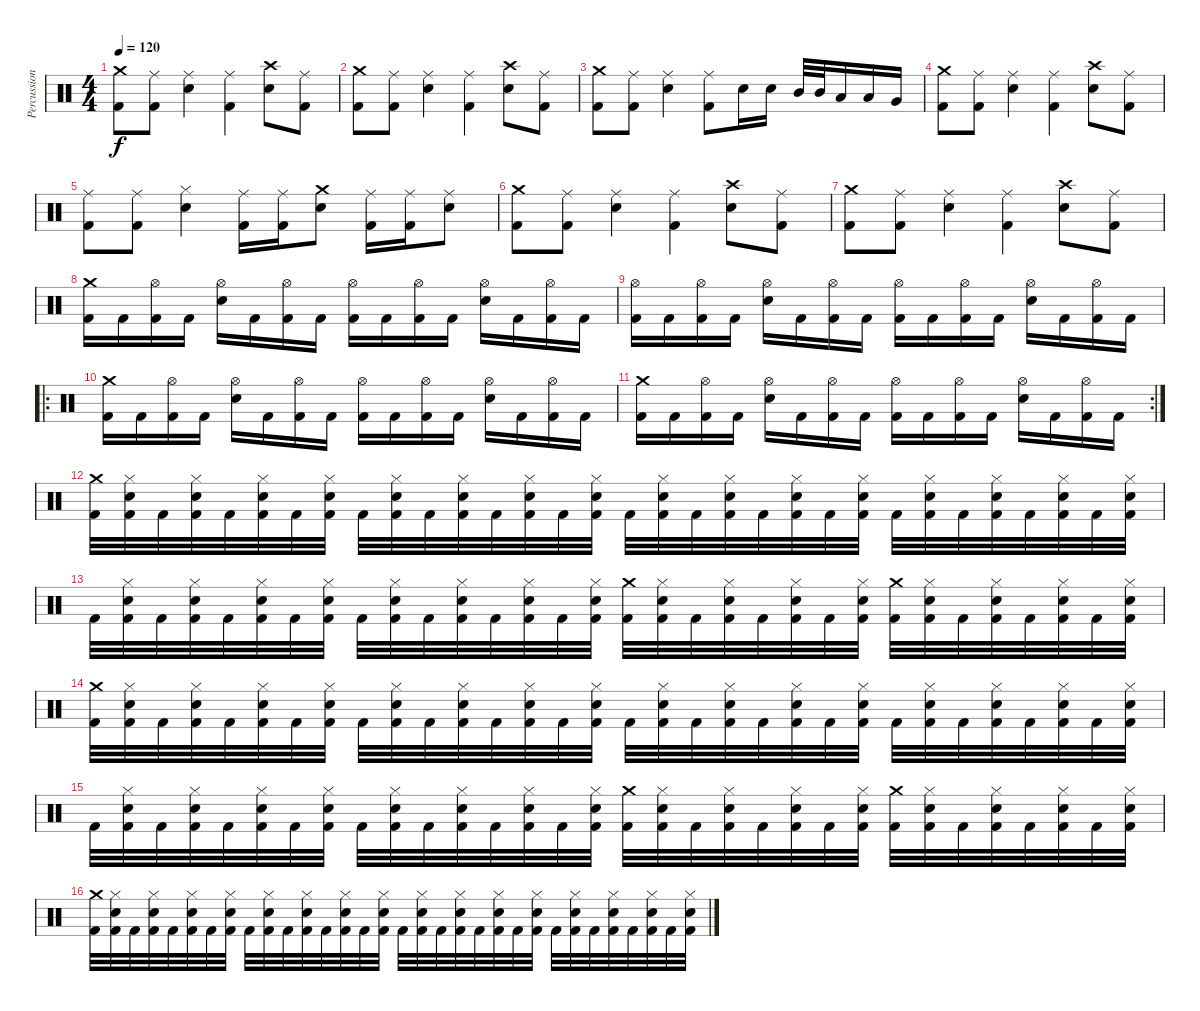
\track ("Percussion" "Percussion") {instrument percussion}
\staff {score}
\articulation defaults
\ts (4 4)
\tempo 120
\clef neutral
\ks c
("Crash medium (hit)" "Kick (hit) 2").8{dy f} ("Ride (middle)" "Kick (hit) 2").8 ("Ride (middle)" "Snare (hit) 2").4 ("Ride (middle)" "Kick (hit) 2").4 ("Crash high (hit)" "Snare (hit) 2").8 ("Ride (middle)" "Kick (hit) 2").8 |
("Crash medium (hit)" "Kick (hit) 2").8 ("Ride (middle)" "Kick (hit) 2").8 ("Ride (middle)" "Snare (hit) 2").4 ("Ride (middle)" "Kick (hit) 2").4 ("Crash high (hit)" "Snare (hit) 2").8 ("Ride (middle)" "Kick (hit) 2").8 |
("Crash medium (hit)" "Kick (hit) 2").8 ("Ride (middle)" "Kick (hit) 2").8 ("Ride (middle)" "Snare (hit) 2").4 ("Ride (middle)" "Kick (hit) 2").8 "Snare (hit) 2".16 "Snare (hit) 2".16 "Mid Tom (hit)".32 "Mid Tom (hit)".32 "Low Tom (hit)".16 "Low Tom (hit)".16 "Very Low Tom (hit)".16 |
("Crash medium (hit)" "Kick (hit) 2").8 ("Ride (middle)" "Kick (hit) 2").8 ("Ride (middle)" "Snare (hit) 2").4 ("Ride (middle)" "Kick (hit) 2").4 ("Crash high (hit)" "Snare (hit) 2").8 ("Ride (middle)" "Kick (hit) 2").8 |
("Ride (middle)" "Kick (hit) 2").8 ("Ride (middle)" "Kick (hit) 2").8 ("Hi-Hat (closed)" "Snare (hit) 2").4 ("Ride (middle)" "Kick (hit) 2").16 ("Ride (middle)" "Kick (hit) 2").16 ("Crash medium (hit)" "Snare (hit) 2").8 ("Ride (middle)" "Kick (hit) 2").16 ("Ride (middle)" "Kick (hit) 2").16 ("Ride (middle)" "Snare (hit) 2").8 |
("Crash medium (hit)" "Kick (hit) 2").8 ("Ride (middle)" "Kick (hit) 2").8 ("Ride (middle)" "Snare (hit) 2").4 ("Ride (middle)" "Kick (hit) 2").4 ("Crash high (hit)" "Snare (hit) 2").8 ("Ride (middle)" "Kick (hit) 2").8 |
("Crash medium (hit)" "Kick (hit) 2").8 ("Ride (middle)" "Kick (hit) 2").8 ("Ride (middle)" "Snare (hit) 2").4 ("Ride (middle)" "Kick (hit) 2").4 ("Crash high (hit)" "Snare (hit) 2").8 ("Ride (middle)" "Kick (hit) 2").8 |
("Crash medium (hit)" "Kick (hit) 2").16 "Kick (hit) 2".16 ("Hi-Hat (open)" "Kick (hit) 2").16 "Kick (hit) 2".16 ("Hi-Hat (open)" "Snare (hit) 2").16 "Kick (hit) 2".16 ("Hi-Hat (open)" "Kick (hit) 2").16 "Kick (hit) 2".16 ("Hi-Hat (open)" "Kick (hit) 2").16 "Kick (hit) 2".16 ("Hi-Hat (open)" "Kick (hit) 2").16 "Kick (hit) 2".16 ("Hi-Hat (open)" "Snare (hit) 2").16 "Kick (hit) 2".16 ("Hi-Hat (open)" "Kick (hit) 2").16 "Kick (hit) 2".16 |
("Hi-Hat (open)" "Kick (hit) 2").16 "Kick (hit) 2".16 ("Hi-Hat (open)" "Kick (hit) 2").16 "Kick (hit) 2".16 ("Hi-Hat (open)" "Snare (hit) 2").16 "Kick (hit) 2".16 ("Hi-Hat (open)" "Kick (hit) 2").16 "Kick (hit) 2".16 ("Hi-Hat (open)" "Kick (hit) 2").16 "Kick (hit) 2".16 ("Hi-Hat (open)" "Kick (hit) 2").16 "Kick (hit) 2".16 ("Hi-Hat (open)" "Snare (hit) 2").16 "Kick (hit) 2".16 ("Hi-Hat (open)" "Kick (hit) 2").16 "Kick (hit) 2".16 |
\ro
("Crash medium (hit)" "Kick (hit) 2").16 "Kick (hit) 2".16 ("Hi-Hat (open)" "Kick (hit) 2").16 "Kick (hit) 2".16 ("Hi-Hat (open)" "Snare (hit) 2").16 "Kick (hit) 2".16 ("Hi-Hat (open)" "Kick (hit) 2").16 "Kick (hit) 2".16 ("Hi-Hat (open)" "Kick (hit) 2").16 "Kick (hit) 2".16 ("Hi-Hat (open)" "Kick (hit) 2").16 "Kick (hit) 2".16 ("Hi-Hat (open)" "Snare (hit) 2").16 "Kick (hit) 2".16 ("Hi-Hat (open)" "Kick (hit) 2").16 "Kick (hit) 2".16 |
\rc 2
("Crash medium (hit)" "Kick (hit) 2").16 "Kick (hit) 2".16 ("Hi-Hat (open)" "Kick (hit) 2").16 "Kick (hit) 2".16 ("Hi-Hat (open)" "Snare (hit) 2").16 "Kick (hit) 2".16 ("Hi-Hat (open)" "Kick (hit) 2").16 "Kick (hit) 2".16 ("Hi-Hat (open)" "Kick (hit) 2").16 "Kick (hit) 2".16 ("Hi-Hat (open)" "Kick (hit) 2").16 "Kick (hit) 2".16 ("Hi-Hat (open)" "Snare (hit) 2").16 "Kick (hit) 2".16 ("Hi-Hat (open)" "Kick (hit) 2").16 "Kick (hit) 2".16 |
("Crash medium (hit)" "Kick (hit) 2").32 ("Hi-Hat (closed)" "Snare (hit) 2" "Kick (hit) 2").32 "Kick (hit) 2".32 ("Hi-Hat (closed)" "Snare (hit) 2" "Kick (hit) 2").32 "Kick (hit) 2".32 ("Hi-Hat (closed)" "Snare (hit) 2" "Kick (hit) 2").32 "Kick (hit) 2".32 ("Hi-Hat (closed)" "Snare (hit) 2" "Kick (hit) 2").32 "Kick (hit) 2".32 ("Hi-Hat (closed)" "Snare (hit) 2" "Kick (hit) 2").32 "Kick (hit) 2".32 ("Hi-Hat (closed)" "Snare (hit) 2" "Kick (hit) 2").32 "Kick (hit) 2".32 ("Hi-Hat (closed)" "Snare (hit) 2" "Kick (hit) 2").32 "Kick (hit) 2".32 ("Hi-Hat (closed)" "Snare (hit) 2" "Kick (hit) 2").32 "Kick (hit) 2".32 ("Hi-Hat (closed)" "Snare (hit) 2" "Kick (hit) 2").32 "Kick (hit) 2".32 ("Hi-Hat (closed)" "Snare (hit) 2" "Kick (hit) 2").32 "Kick (hit) 2".32 ("Hi-Hat (closed)" "Snare (hit) 2" "Kick (hit) 2").32 "Kick (hit) 2".32 ("Hi-Hat (closed)" "Snare (hit) 2" "Kick (hit) 2").32 "Kick (hit) 2".32 ("Hi-Hat (closed)" "Snare (hit) 2" "Kick (hit) 2").32 "Kick (hit) 2".32 ("Hi-Hat (closed)" "Snare (hit) 2" "Kick (hit) 2").32 "Kick (hit) 2".32 ("Hi-Hat (closed)" "Snare (hit) 2" "Kick (hit) 2").32 "Kick (hit) 2".32 ("Hi-Hat (closed)" "Snare (hit) 2" "Kick (hit) 2").32 |
"Kick (hit) 2".32 ("Hi-Hat (closed)" "Snare (hit) 2" "Kick (hit) 2").32 "Kick (hit) 2".32 ("Hi-Hat (closed)" "Snare (hit) 2" "Kick (hit) 2").32 "Kick (hit) 2".32 ("Hi-Hat (closed)" "Snare (hit) 2" "Kick (hit) 2").32 "Kick (hit) 2".32 ("Hi-Hat (closed)" "Snare (hit) 2" "Kick (hit) 2").32 "Kick (hit) 2".32 ("Hi-Hat (closed)" "Snare (hit) 2" "Kick (hit) 2").32 "Kick (hit) 2".32 ("Hi-Hat (closed)" "Snare (hit) 2" "Kick (hit) 2").32 "Kick (hit) 2".32 ("Hi-Hat (closed)" "Snare (hit) 2" "Kick (hit) 2").32 "Kick (hit) 2".32 ("Hi-Hat (closed)" "Snare (hit) 2" "Kick (hit) 2").32 ("Crash medium (hit)" "Kick (hit) 2").32 ("Hi-Hat (closed)" "Snare (hit) 2" "Kick (hit) 2").32 "Kick (hit) 2".32 ("Hi-Hat (closed)" "Snare (hit) 2" "Kick (hit) 2").32 "Kick (hit) 2".32 ("Hi-Hat (closed)" "Snare (hit) 2" "Kick (hit) 2").32 "Kick (hit) 2".32 ("Hi-Hat (closed)" "Snare (hit) 2" "Kick (hit) 2").32 ("Crash medium (hit)" "Kick (hit) 2").32 ("Hi-Hat (closed)" "Snare (hit) 2" "Kick (hit) 2").32 "Kick (hit) 2".32 ("Hi-Hat (closed)" "Snare (hit) 2" "Kick (hit) 2").32 "Kick (hit) 2".32 ("Hi-Hat (closed)" "Snare (hit) 2" "Kick (hit) 2").32 "Kick (hit) 2".32 ("Hi-Hat (closed)" "Snare (hit) 2" "Kick (hit) 2").32 |
("Crash medium (hit)" "Kick (hit) 2").32 ("Hi-Hat (closed)" "Snare (hit) 2" "Kick (hit) 2").32 "Kick (hit) 2".32 ("Hi-Hat (closed)" "Snare (hit) 2" "Kick (hit) 2").32 "Kick (hit) 2".32 ("Hi-Hat (closed)" "Snare (hit) 2" "Kick (hit) 2").32 "Kick (hit) 2".32 ("Hi-Hat (closed)" "Snare (hit) 2" "Kick (hit) 2").32 "Kick (hit) 2".32 ("Hi-Hat (closed)" "Snare (hit) 2" "Kick (hit) 2").32 "Kick (hit) 2".32 ("Hi-Hat (closed)" "Snare (hit) 2" "Kick (hit) 2").32 "Kick (hit) 2".32 ("Hi-Hat (closed)" "Snare (hit) 2" "Kick (hit) 2").32 "Kick (hit) 2".32 ("Hi-Hat (closed)" "Snare (hit) 2" "Kick (hit) 2").32 "Kick (hit) 2".32 ("Hi-Hat (closed)" "Snare (hit) 2" "Kick (hit) 2").32 "Kick (hit) 2".32 ("Hi-Hat (closed)" "Snare (hit) 2" "Kick (hit) 2").32 "Kick (hit) 2".32 ("Hi-Hat (closed)" "Snare (hit) 2" "Kick (hit) 2").32 "Kick (hit) 2".32 ("Hi-Hat (closed)" "Snare (hit) 2" "Kick (hit) 2").32 "Kick (hit) 2".32 ("Hi-Hat (closed)" "Snare (hit) 2" "Kick (hit) 2").32 "Kick (hit) 2".32 ("Hi-Hat (closed)" "Snare (hit) 2" "Kick (hit) 2").32 "Kick (hit) 2".32 ("Hi-Hat (closed)" "Snare (hit) 2" "Kick (hit) 2").32 "Kick (hit) 2".32 ("Hi-Hat (closed)" "Snare (hit) 2" "Kick (hit) 2").32 |
"Kick (hit) 2".32 ("Hi-Hat (closed)" "Snare (hit) 2" "Kick (hit) 2").32 "Kick (hit) 2".32 ("Hi-Hat (closed)" "Snare (hit) 2" "Kick (hit) 2").32 "Kick (hit) 2".32 ("Hi-Hat (closed)" "Snare (hit) 2" "Kick (hit) 2").32 "Kick (hit) 2".32 ("Hi-Hat (closed)" "Snare (hit) 2" "Kick (hit) 2").32 "Kick (hit) 2".32 ("Hi-Hat (closed)" "Snare (hit) 2" "Kick (hit) 2").32 "Kick (hit) 2".32 ("Hi-Hat (closed)" "Snare (hit) 2" "Kick (hit) 2").32 "Kick (hit) 2".32 ("Hi-Hat (closed)" "Snare (hit) 2" "Kick (hit) 2").32 "Kick (hit) 2".32 ("Hi-Hat (closed)" "Snare (hit) 2" "Kick (hit) 2").32 ("Crash medium (hit)" "Kick (hit) 2").32 ("Hi-Hat (closed)" "Snare (hit) 2" "Kick (hit) 2").32 "Kick (hit) 2".32 ("Hi-Hat (closed)" "Snare (hit) 2" "Kick (hit) 2").32 "Kick (hit) 2".32 ("Hi-Hat (closed)" "Snare (hit) 2" "Kick (hit) 2").32 "Kick (hit) 2".32 ("Hi-Hat (closed)" "Snare (hit) 2" "Kick (hit) 2").32 ("Crash medium (hit)" "Kick (hit) 2").32 ("Hi-Hat (closed)" "Snare (hit) 2" "Kick (hit) 2").32 "Kick (hit) 2".32 ("Hi-Hat (closed)" "Snare (hit) 2" "Kick (hit) 2").32 "Kick (hit) 2".32 ("Hi-Hat (closed)" "Snare (hit) 2" "Kick (hit) 2").32 "Kick (hit) 2".32 ("Hi-Hat (closed)" "Snare (hit) 2" "Kick (hit) 2").32 |
("Crash medium (hit)" "Kick (hit) 2").32 ("Hi-Hat (closed)" "Snare (hit) 2" "Kick (hit) 2").32 "Kick (hit) 2".32 ("Hi-Hat (closed)" "Snare (hit) 2" "Kick (hit) 2").32 "Kick (hit) 2".32 ("Hi-Hat (closed)" "Snare (hit) 2" "Kick (hit) 2").32 "Kick (hit) 2".32 ("Hi-Hat (closed)" "Snare (hit) 2" "Kick (hit) 2").32 "Kick (hit) 2".32 ("Hi-Hat (closed)" "Snare (hit) 2" "Kick (hit) 2").32 "Kick (hit) 2".32 ("Hi-Hat (closed)" "Snare (hit) 2" "Kick (hit) 2").32 "Kick (hit) 2".32 ("Hi-Hat (closed)" "Snare (hit) 2" "Kick (hit) 2").32 "Kick (hit) 2".32 ("Hi-Hat (closed)" "Snare (hit) 2" "Kick (hit) 2").32 "Kick (hit) 2".32 ("Hi-Hat (closed)" "Snare (hit) 2" "Kick (hit) 2").32 "Kick (hit) 2".32 ("Hi-Hat (closed)" "Snare (hit) 2" "Kick (hit) 2").32 "Kick (hit) 2".32 ("Hi-Hat (closed)" "Snare (hit) 2" "Kick (hit) 2").32 "Kick (hit) 2".32 ("Hi-Hat (closed)" "Snare (hit) 2" "Kick (hit) 2").32 "Kick (hit) 2".32 ("Hi-Hat (closed)" "Snare (hit) 2" "Kick (hit) 2").32 "Kick (hit) 2".32 ("Hi-Hat (closed)" "Snare (hit) 2" "Kick (hit) 2").32 "Kick (hit) 2".32 ("Hi-Hat (closed)" "Snare (hit) 2" "Kick (hit) 2").32 "Kick (hit) 2".32 ("Hi-Hat (closed)" "Snare (hit) 2" "Kick (hit) 2").32
